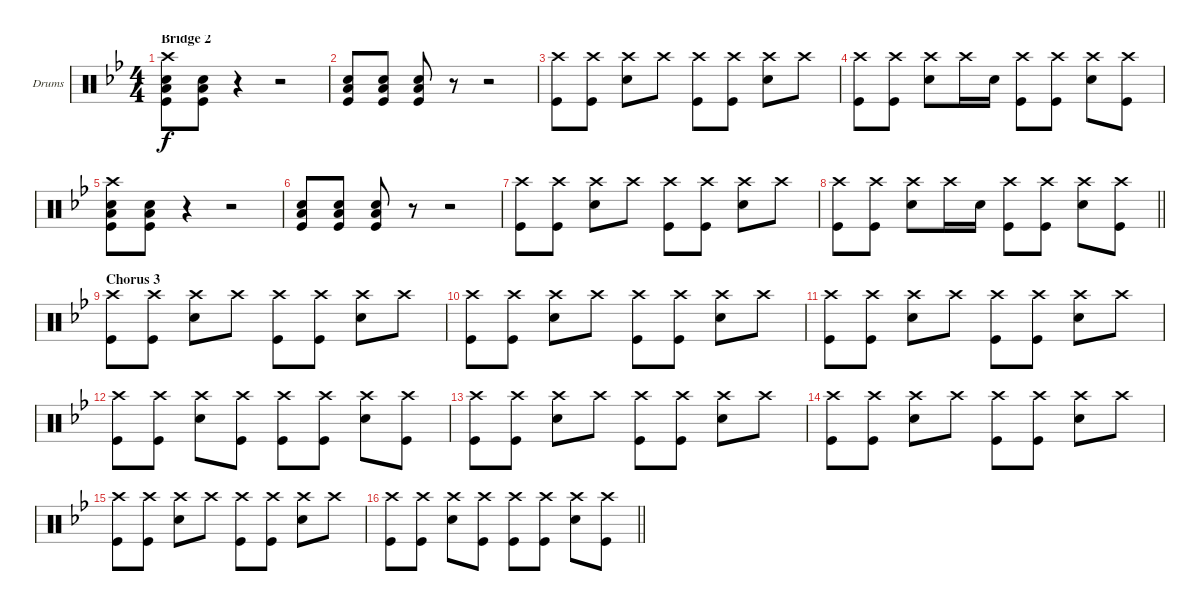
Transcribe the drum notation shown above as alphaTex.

\bracketExtendMode groupsimilarinstruments
\firstSystemTrackNameOrientation horizontal
\otherSystemsTrackNameOrientation horizontal
\track ("Drumkit" "Drums") {instrument percussion}
\staff {score}
\articulation defaults
\ts (4 4)
\section ("" "Bridge 2")
\tempo (86 hide)
\clef neutral
\ks gminor
("Crash high (hit)" "Low Tom (hit)" "Snare (hit) 2" "Kick (hit)").8{dy f} ("Low Tom (hit)" "Snare (hit) 2" "Kick (hit)").8 r.4 r.2 |
("Low Tom (hit)" "Snare (hit) 2" "Kick (hit)").8 ("Low Tom (hit)" "Snare (hit) 2" "Kick (hit)").8 ("Low Tom (hit)" "Snare (hit) 2" "Kick (hit)").8 r.8 r.2 |
("Crash high (hit)" "Kick (hit)").8 ("Crash high (hit)" "Kick (hit)").8 ("Crash high (hit)" "Snare (hit) 2").8 "Crash high (hit)".8 ("Crash high (hit)" "Kick (hit)").8 ("Crash high (hit)" "Kick (hit)").8 ("Crash high (hit)" "Snare (hit) 2").8 "Crash high (hit)".8 |
("Crash high (hit)" "Kick (hit)").8 ("Crash high (hit)" "Kick (hit)").8 ("Crash high (hit)" "Snare (hit) 2").8 "Crash high (hit)".16 "Snare (hit) 2".16 ("Crash high (hit)" "Kick (hit)").8 ("Crash high (hit)" "Kick (hit)").8 ("Crash high (hit)" "Snare (hit) 2").8 ("Crash high (hit)" "Kick (hit)").8 |
("Crash high (hit)" "Low Tom (hit)" "Snare (hit) 2" "Kick (hit)").8 ("Low Tom (hit)" "Snare (hit) 2" "Kick (hit)").8 r.4 r.2 |
("Low Tom (hit)" "Snare (hit) 2" "Kick (hit)").8 ("Low Tom (hit)" "Snare (hit) 2" "Kick (hit)").8 ("Low Tom (hit)" "Snare (hit) 2" "Kick (hit)").8 r.8 r.2 |
("Crash high (hit)" "Kick (hit)").8 ("Crash high (hit)" "Kick (hit)").8 ("Crash high (hit)" "Snare (hit) 2").8 "Crash high (hit)".8 ("Crash high (hit)" "Kick (hit)").8 ("Crash high (hit)" "Kick (hit)").8 ("Crash high (hit)" "Snare (hit) 2").8 "Crash high (hit)".8 |
\barLineRight lightlight
("Crash high (hit)" "Kick (hit)").8 ("Crash high (hit)" "Kick (hit)").8 ("Crash high (hit)" "Snare (hit) 2").8 "Crash high (hit)".16 "Snare (hit) 2".16 ("Crash high (hit)" "Kick (hit)").8 ("Crash high (hit)" "Kick (hit)").8 ("Crash high (hit)" "Snare (hit) 2").8 ("Crash high (hit)" "Kick (hit)").8 |
\section ("" "Chorus 3")
("Crash high (hit)" "Kick (hit)").8 ("Crash high (hit)" "Kick (hit)").8 ("Crash high (hit)" "Snare (hit) 2").8 "Crash high (hit)".8 ("Crash high (hit)" "Kick (hit)").8 ("Crash high (hit)" "Kick (hit)").8 ("Crash high (hit)" "Snare (hit) 2").8 "Crash high (hit)".8 |
("Crash high (hit)" "Kick (hit)").8 ("Crash high (hit)" "Kick (hit)").8 ("Crash high (hit)" "Snare (hit) 2").8 "Crash high (hit)".8 ("Crash high (hit)" "Kick (hit)").8 ("Crash high (hit)" "Kick (hit)").8 ("Crash high (hit)" "Snare (hit) 2").8 "Crash high (hit)".8 |
("Crash high (hit)" "Kick (hit)").8 ("Crash high (hit)" "Kick (hit)").8 ("Crash high (hit)" "Snare (hit) 2").8 "Crash high (hit)".8 ("Crash high (hit)" "Kick (hit)").8 ("Crash high (hit)" "Kick (hit)").8 ("Crash high (hit)" "Snare (hit) 2").8 "Crash high (hit)".8 |
("Crash high (hit)" "Kick (hit)").8 ("Crash high (hit)" "Kick (hit)").8 ("Crash high (hit)" "Snare (hit) 2").8 ("Crash high (hit)" "Kick (hit)").8 ("Crash high (hit)" "Kick (hit)").8 ("Crash high (hit)" "Kick (hit)").8 ("Crash high (hit)" "Snare (hit) 2").8 ("Crash high (hit)" "Kick (hit)").8 |
("Crash high (hit)" "Kick (hit)").8 ("Crash high (hit)" "Kick (hit)").8 ("Crash high (hit)" "Snare (hit) 2").8 "Crash high (hit)".8 ("Crash high (hit)" "Kick (hit)").8 ("Crash high (hit)" "Kick (hit)").8 ("Crash high (hit)" "Snare (hit) 2").8 "Crash high (hit)".8 |
("Crash high (hit)" "Kick (hit)").8 ("Crash high (hit)" "Kick (hit)").8 ("Crash high (hit)" "Snare (hit) 2").8 "Crash high (hit)".8 ("Crash high (hit)" "Kick (hit)").8 ("Crash high (hit)" "Kick (hit)").8 ("Crash high (hit)" "Snare (hit) 2").8 "Crash high (hit)".8 |
("Crash high (hit)" "Kick (hit)").8 ("Crash high (hit)" "Kick (hit)").8 ("Crash high (hit)" "Snare (hit) 2").8 "Crash high (hit)".8 ("Crash high (hit)" "Kick (hit)").8 ("Crash high (hit)" "Kick (hit)").8 ("Crash high (hit)" "Snare (hit) 2").8 "Crash high (hit)".8 |
\barLineRight lightlight
("Crash high (hit)" "Kick (hit)").8 ("Crash high (hit)" "Kick (hit)").8 ("Crash high (hit)" "Snare (hit) 2").8 ("Crash high (hit)" "Kick (hit)").8 ("Crash high (hit)" "Kick (hit)").8 ("Crash high (hit)" "Kick (hit)").8 ("Crash high (hit)" "Snare (hit) 2").8 ("Crash high (hit)" "Kick (hit)").8
